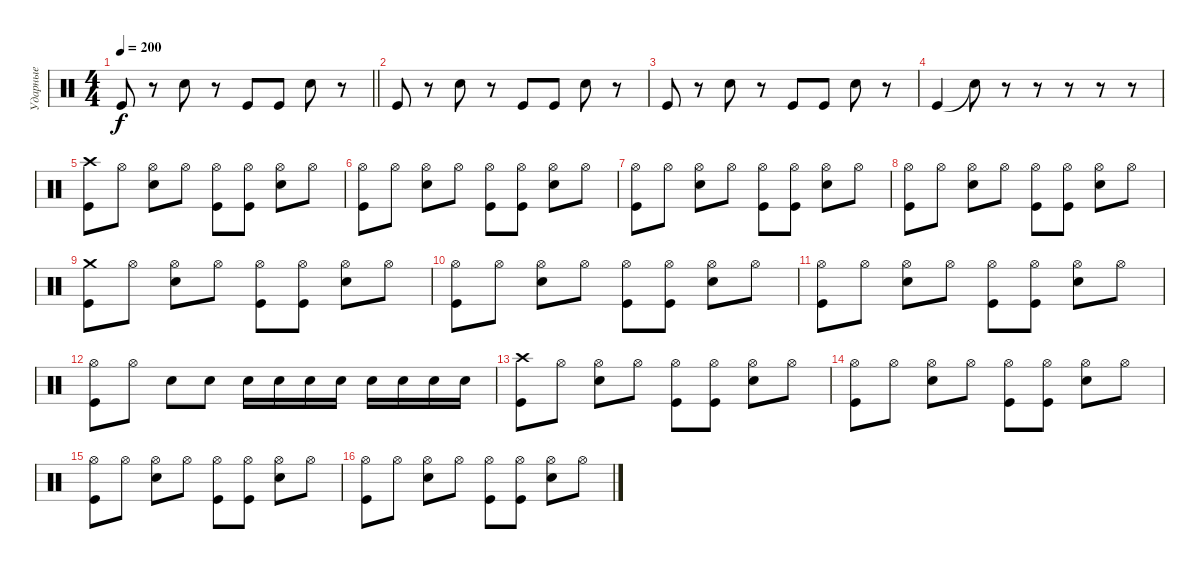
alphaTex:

\track ("Ударные" "Ударные") {instrument percussion}
\staff {score}
\articulation defaults
\ts (4 4)
\tempo 200
\clef neutral
\barLineRight lightlight
\ks c "Kick (hit)".8{dy f}
r.8 "Snare (hit) 2".8 r.8 "Kick (hit)".8 "Kick (hit)".8 "Snare (hit) 2".8 r.8 |
"Kick (hit)".8 r.8 "Snare (hit) 2".8 r.8 "Kick (hit)".8 "Kick (hit)".8 "Snare (hit) 2".8 r.8 |
"Kick (hit)".8 r.8 "Snare (hit) 2".8 r.8 "Kick (hit)".8 "Kick (hit)".8 "Snare (hit) 2".8 r.8 |
"Kick (hit)".4 "Snare (hit)"{t}.8 r.8 r.8 r.8 r.8 r.8 |
("Crash high (hit)" "Kick (hit)").8 "Hi-Hat (open)".8 ("Hi-Hat (open)" "Snare (hit) 2").8 "Hi-Hat (open)".8 ("Hi-Hat (open)" "Kick (hit)").8 ("Hi-Hat (open)" "Kick (hit)").8 ("Hi-Hat (open)" "Snare (hit) 2").8 "Hi-Hat (open)".8 |
("Hi-Hat (open)" "Kick (hit)").8 "Hi-Hat (open)".8 ("Hi-Hat (open)" "Snare (hit) 2").8 "Hi-Hat (open)".8 ("Hi-Hat (open)" "Kick (hit)").8 ("Hi-Hat (open)" "Kick (hit)").8 ("Hi-Hat (open)" "Snare (hit) 2").8 "Hi-Hat (open)".8 |
("Hi-Hat (open)" "Kick (hit)").8 "Hi-Hat (open)".8 ("Hi-Hat (open)" "Snare (hit) 2").8 "Hi-Hat (open)".8 ("Hi-Hat (open)" "Kick (hit)").8 ("Hi-Hat (open)" "Kick (hit)").8 ("Hi-Hat (open)" "Snare (hit) 2").8 "Hi-Hat (open)".8 |
("Hi-Hat (open)" "Kick (hit)").8 "Hi-Hat (open)".8 ("Hi-Hat (open)" "Snare (hit) 2").8 "Hi-Hat (open)".8 ("Hi-Hat (open)" "Kick (hit)").8 ("Hi-Hat (open)" "Kick (hit)").8 ("Hi-Hat (open)" "Snare (hit) 2").8 "Hi-Hat (open)".8 |
("Crash medium (hit)" "Kick (hit)").8 "Hi-Hat (open)".8 ("Hi-Hat (open)" "Snare (hit) 2").8 "Hi-Hat (open)".8 ("Hi-Hat (open)" "Kick (hit)").8 ("Hi-Hat (open)" "Kick (hit)").8 ("Hi-Hat (open)" "Snare (hit) 2").8 "Hi-Hat (open)".8 |
("Hi-Hat (open)" "Kick (hit)").8 "Hi-Hat (open)".8 ("Hi-Hat (open)" "Snare (hit) 2").8 "Hi-Hat (open)".8 ("Hi-Hat (open)" "Kick (hit)").8 ("Hi-Hat (open)" "Kick (hit)").8 ("Hi-Hat (open)" "Snare (hit) 2").8 "Hi-Hat (open)".8 |
("Hi-Hat (open)" "Kick (hit)").8 "Hi-Hat (open)".8 ("Hi-Hat (open)" "Snare (hit) 2").8 "Hi-Hat (open)".8 ("Hi-Hat (open)" "Kick (hit)").8 ("Hi-Hat (open)" "Kick (hit)").8 ("Hi-Hat (open)" "Snare (hit) 2").8 "Hi-Hat (open)".8 |
("Hi-Hat (open)" "Kick (hit)").8 "Hi-Hat (open)".8 "Snare (hit) 2".8 "Snare (hit) 2".8 "Snare (hit) 2".16 "Snare (hit) 2".16 "Snare (hit) 2".16 "Snare (hit) 2".16 "Snare (hit) 2".16 "Snare (hit) 2".16 "Snare (hit) 2".16 "Snare (hit) 2".16 |
("Crash high (hit)" "Kick (hit)").8 "Hi-Hat (open)".8 ("Hi-Hat (open)" "Snare (hit) 2").8 "Hi-Hat (open)".8 ("Hi-Hat (open)" "Kick (hit)").8 ("Hi-Hat (open)" "Kick (hit)").8 ("Hi-Hat (open)" "Snare (hit) 2").8 "Hi-Hat (open)".8 |
("Hi-Hat (open)" "Kick (hit)").8 "Hi-Hat (open)".8 ("Hi-Hat (open)" "Snare (hit) 2").8 "Hi-Hat (open)".8 ("Hi-Hat (open)" "Kick (hit)").8 ("Hi-Hat (open)" "Kick (hit)").8 ("Hi-Hat (open)" "Snare (hit) 2").8 "Hi-Hat (open)".8 |
("Hi-Hat (open)" "Kick (hit)").8 "Hi-Hat (open)".8 ("Hi-Hat (open)" "Snare (hit) 2").8 "Hi-Hat (open)".8 ("Hi-Hat (open)" "Kick (hit)").8 ("Hi-Hat (open)" "Kick (hit)").8 ("Hi-Hat (open)" "Snare (hit) 2").8 "Hi-Hat (open)".8 |
("Hi-Hat (open)" "Kick (hit)").8 "Hi-Hat (open)".8 ("Hi-Hat (open)" "Snare (hit) 2").8 "Hi-Hat (open)".8 ("Hi-Hat (open)" "Kick (hit)").8 ("Hi-Hat (open)" "Kick (hit)").8 ("Hi-Hat (open)" "Snare (hit) 2").8 "Hi-Hat (open)".8
